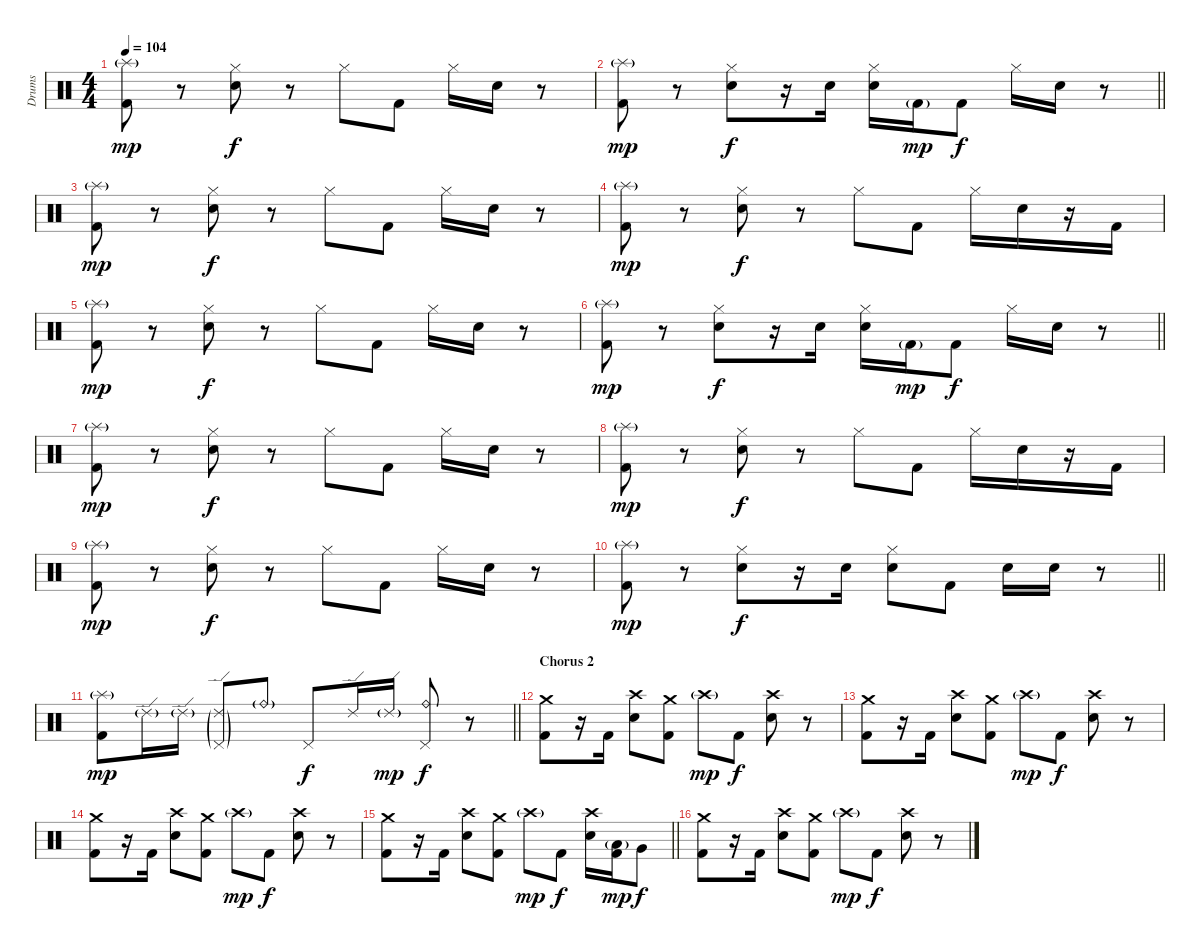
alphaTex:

\track ("Drums" "Drums") {instrument percussion}
\staff {score}
\articulation defaults
\ts (4 4)
\tempo 104
\clef neutral
\ks c
("Splash (hit)"{g} "Kick (hit) 2").8{dy mp} r.8 ("Hi-Hat (closed)" "Electric Snare (hit)").8{dy f} r.8 "Hi-Hat (closed)".8 "Kick (hit) 2".8 "Hi-Hat (closed)".16 "Electric Snare (hit)".16 r.8 |
\barLineRight lightlight
("Splash (hit)"{g} "Kick (hit) 2").8{dy mp} r.8 ("Hi-Hat (closed)" "Electric Snare (hit)").8{dy f} r.16 "Electric Snare (hit)".16 ("Hi-Hat (closed)" "Electric Snare (hit)").16 "Kick (hit) 2"{g}.16{dy mp} "Kick (hit) 2".8{dy f} "Hi-Hat (closed)".16 "Electric Snare (hit)".16 r.8 |
("Splash (hit)"{g} "Kick (hit) 2").8{dy mp} r.8 ("Hi-Hat (closed)" "Electric Snare (hit)").8{dy f} r.8 "Hi-Hat (closed)".8 "Kick (hit) 2".8 "Hi-Hat (closed)".16 "Electric Snare (hit)".16 r.8 |
("Splash (hit)"{g} "Kick (hit) 2").8{dy mp} r.8 ("Hi-Hat (closed)" "Electric Snare (hit)").8{dy f} r.8 "Hi-Hat (closed)".8 "Kick (hit) 2".8 "Hi-Hat (closed)".16 "Electric Snare (hit)".16 r.16 "Kick (hit) 2".16 |
("Splash (hit)"{g} "Kick (hit) 2").8{dy mp} r.8 ("Hi-Hat (closed)" "Electric Snare (hit)").8{dy f} r.8 "Hi-Hat (closed)".8 "Kick (hit) 2".8 "Hi-Hat (closed)".16 "Electric Snare (hit)".16 r.8 |
\barLineRight lightlight
("Splash (hit)"{g} "Kick (hit) 2").8{dy mp} r.8 ("Hi-Hat (closed)" "Electric Snare (hit)").8{dy f} r.16 "Electric Snare (hit)".16 ("Hi-Hat (closed)" "Electric Snare (hit)").16 "Kick (hit) 2"{g}.16{dy mp} "Kick (hit) 2".8{dy f} "Hi-Hat (closed)".16 "Electric Snare (hit)".16 r.8 |
("Splash (hit)"{g} "Kick (hit) 2").8{dy mp} r.8 ("Hi-Hat (closed)" "Electric Snare (hit)").8{dy f} r.8 "Hi-Hat (closed)".8 "Kick (hit) 2".8 "Hi-Hat (closed)".16 "Electric Snare (hit)".16 r.8 |
("Splash (hit)"{g} "Kick (hit) 2").8{dy mp} r.8 ("Hi-Hat (closed)" "Electric Snare (hit)").8{dy f} r.8 "Hi-Hat (closed)".8 "Kick (hit) 2".8 "Hi-Hat (closed)".16 "Electric Snare (hit)".16 r.16 "Kick (hit) 2".16 |
("Splash (hit)"{g} "Kick (hit) 2").8{dy mp} r.8 ("Hi-Hat (closed)" "Electric Snare (hit)").8{dy f} r.8 "Hi-Hat (closed)".8 "Kick (hit) 2".8 "Hi-Hat (closed)".16 "Electric Snare (hit)".16 r.8 |
\barLineRight lightlight
("Splash (hit)"{g} "Kick (hit) 2").8{dy mp} r.8 ("Hi-Hat (closed)" "Electric Snare (hit)").8{dy f} r.16 "Electric Snare (hit)".16 ("Hi-Hat (closed)" "Electric Snare (hit)").8 "Kick (hit) 2".8 "Electric Snare (hit)".16 "Electric Snare (hit)".16 r.8 |
\barLineRight lightlight
("Splash (hit)"{g} "Kick (hit) 2").8{dy mp} "Ride (edge) 2"{g}.16 "Ride (edge) 2"{g}.16 ("Ride (edge) 2"{g} "Pedal Hi-Hat (hit)"{g}).8 "Ride (bell)"{g}.8 "Pedal Hi-Hat (hit)".8{dy f} "Ride (edge) 2".16 "Ride (edge) 2"{g}.16{dy mp} ("Ride (bell)" "Pedal Hi-Hat (hit)").8{dy f} r.8 |
\section ("" "Chorus 2")
("Crash medium (hit)" "Kick (hit) 2").8 r.16 "Kick (hit) 2".16 ("Crash high (hit)" "Electric Snare (hit)").8 ("Crash medium (hit)" "Kick (hit) 2").8 "Crash high (hit)"{g}.8{dy mp} "Kick (hit) 2".8{dy f} ("Crash high (hit)" "Electric Snare (hit)").8 r.8 |
("Crash medium (hit)" "Kick (hit) 2").8 r.16 "Kick (hit) 2".16 ("Crash high (hit)" "Electric Snare (hit)").8 ("Crash medium (hit)" "Kick (hit) 2").8 "Crash high (hit)"{g}.8{dy mp} "Kick (hit) 2".8{dy f} ("Crash high (hit)" "Electric Snare (hit)").8 r.8 |
("Crash medium (hit)" "Kick (hit) 2").8 r.16 "Kick (hit) 2".16 ("Crash high (hit)" "Electric Snare (hit)").8 ("Crash medium (hit)" "Kick (hit) 2").8 "Crash high (hit)"{g}.8{dy mp} "Kick (hit) 2".8{dy f} ("Crash high (hit)" "Electric Snare (hit)").8 r.8 |
\barLineRight lightlight
("Crash medium (hit)" "Kick (hit) 2").8 r.16 "Kick (hit) 2".16 ("Crash high (hit)" "Electric Snare (hit)").8 ("Crash medium (hit)" "Kick (hit) 2").8 "Crash high (hit)"{g}.8{dy mp} "Kick (hit) 2".8{dy f} ("Crash high (hit)" "Electric Snare (hit)").16 ("Low Tom (hit)"{g} "Kick (hit) 2").16{dy mp} "Very Low Tom (hit)".8{dy f} |
("Crash medium (hit)" "Kick (hit) 2").8 r.16 "Kick (hit) 2".16 ("Crash high (hit)" "Electric Snare (hit)").8 ("Crash medium (hit)" "Kick (hit) 2").8 "Crash high (hit)"{g}.8{dy mp} "Kick (hit) 2".8{dy f} ("Crash high (hit)" "Electric Snare (hit)").8 r.8
